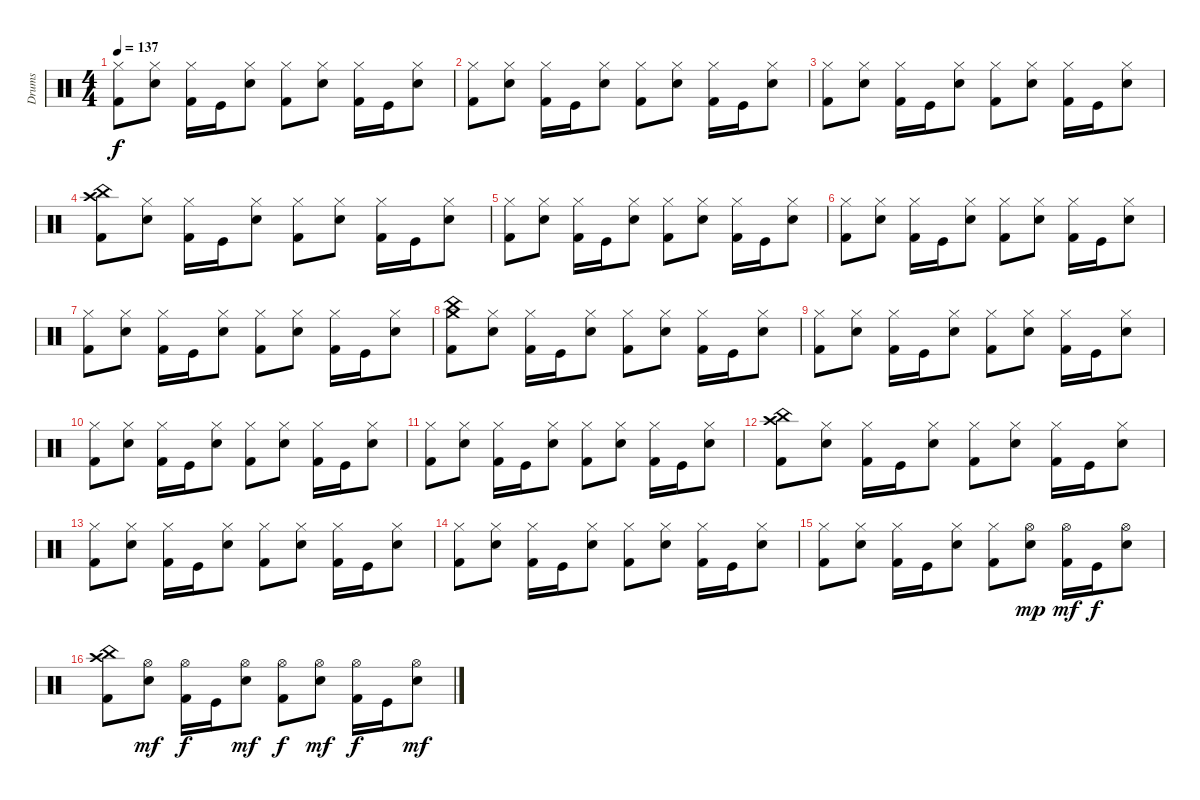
\track ("Drums" "Drums") {instrument percussion}
\staff {score}
\articulation defaults
\ts (4 4)
\tempo 137
\clef neutral
\ks c
("Hi-Hat (closed)" "Kick (hit) 2").8{dy f} ("Hi-Hat (closed)" "Snare (hit) 2").8 ("Hi-Hat (closed)" "Kick (hit) 2").16 "Kick (hit)".16 ("Hi-Hat (closed)" "Snare (hit) 2").8 ("Hi-Hat (closed)" "Kick (hit) 2").8 ("Hi-Hat (closed)" "Snare (hit) 2").8 ("Hi-Hat (closed)" "Kick (hit) 2").16 "Kick (hit)".16 ("Hi-Hat (closed)" "Snare (hit) 2").8 |
("Hi-Hat (closed)" "Kick (hit) 2").8 ("Hi-Hat (closed)" "Snare (hit) 2").8 ("Hi-Hat (closed)" "Kick (hit) 2").16 "Kick (hit)".16 ("Hi-Hat (closed)" "Snare (hit) 2").8 ("Hi-Hat (closed)" "Kick (hit) 2").8 ("Hi-Hat (closed)" "Snare (hit) 2").8 ("Hi-Hat (closed)" "Kick (hit) 2").16 "Kick (hit)".16 ("Hi-Hat (closed)" "Snare (hit) 2").8 |
("Hi-Hat (closed)" "Kick (hit) 2").8 ("Hi-Hat (closed)" "Snare (hit) 2").8 ("Hi-Hat (closed)" "Kick (hit) 2").16 "Kick (hit)".16 ("Hi-Hat (closed)" "Snare (hit) 2").8 ("Hi-Hat (closed)" "Kick (hit) 2").8 ("Hi-Hat (closed)" "Snare (hit) 2").8 ("Hi-Hat (closed)" "Kick (hit) 2").16 "Kick (hit)".16 ("Hi-Hat (closed)" "Snare (hit) 2").8 |
("China (hit)" "Crash high (hit)" "Kick (hit) 2").8 ("Hi-Hat (closed)" "Snare (hit) 2").8 ("Hi-Hat (closed)" "Kick (hit) 2").16 "Kick (hit)".16 ("Hi-Hat (closed)" "Snare (hit) 2").8 ("Hi-Hat (closed)" "Kick (hit) 2").8 ("Hi-Hat (closed)" "Snare (hit) 2").8 ("Hi-Hat (closed)" "Kick (hit) 2").16 "Kick (hit)".16 ("Hi-Hat (closed)" "Snare (hit) 2").8 |
("Hi-Hat (closed)" "Kick (hit) 2").8 ("Hi-Hat (closed)" "Snare (hit) 2").8 ("Hi-Hat (closed)" "Kick (hit) 2").16 "Kick (hit)".16 ("Hi-Hat (closed)" "Snare (hit) 2").8 ("Hi-Hat (closed)" "Kick (hit) 2").8 ("Hi-Hat (closed)" "Snare (hit) 2").8 ("Hi-Hat (closed)" "Kick (hit) 2").16 "Kick (hit)".16 ("Hi-Hat (closed)" "Snare (hit) 2").8 |
("Hi-Hat (closed)" "Kick (hit) 2").8 ("Hi-Hat (closed)" "Snare (hit) 2").8 ("Hi-Hat (closed)" "Kick (hit) 2").16 "Kick (hit)".16 ("Hi-Hat (closed)" "Snare (hit) 2").8 ("Hi-Hat (closed)" "Kick (hit) 2").8 ("Hi-Hat (closed)" "Snare (hit) 2").8 ("Hi-Hat (closed)" "Kick (hit) 2").16 "Kick (hit)".16 ("Hi-Hat (closed)" "Snare (hit) 2").8 |
("Hi-Hat (closed)" "Kick (hit) 2").8 ("Hi-Hat (closed)" "Snare (hit) 2").8 ("Hi-Hat (closed)" "Kick (hit) 2").16 "Kick (hit)".16 ("Hi-Hat (closed)" "Snare (hit) 2").8 ("Hi-Hat (closed)" "Kick (hit) 2").8 ("Hi-Hat (closed)" "Snare (hit) 2").8 ("Hi-Hat (closed)" "Kick (hit) 2").16 "Kick (hit)".16 ("Hi-Hat (closed)" "Snare (hit) 2").8 |
("Crash medium (hit)" "China (hit)" "Kick (hit) 2").8 ("Hi-Hat (closed)" "Snare (hit) 2").8 ("Hi-Hat (closed)" "Kick (hit) 2").16 "Kick (hit)".16 ("Hi-Hat (closed)" "Snare (hit) 2").8 ("Hi-Hat (closed)" "Kick (hit) 2").8 ("Hi-Hat (closed)" "Snare (hit) 2").8 ("Hi-Hat (closed)" "Kick (hit) 2").16 "Kick (hit)".16 ("Hi-Hat (closed)" "Snare (hit) 2").8 |
("Hi-Hat (closed)" "Kick (hit) 2").8 ("Hi-Hat (closed)" "Snare (hit) 2").8 ("Hi-Hat (closed)" "Kick (hit) 2").16 "Kick (hit)".16 ("Hi-Hat (closed)" "Snare (hit) 2").8 ("Hi-Hat (closed)" "Kick (hit) 2").8 ("Hi-Hat (closed)" "Snare (hit) 2").8 ("Hi-Hat (closed)" "Kick (hit) 2").16 "Kick (hit)".16 ("Hi-Hat (closed)" "Snare (hit) 2").8 |
("Hi-Hat (closed)" "Kick (hit) 2").8 ("Hi-Hat (closed)" "Snare (hit) 2").8 ("Hi-Hat (closed)" "Kick (hit) 2").16 "Kick (hit)".16 ("Hi-Hat (closed)" "Snare (hit) 2").8 ("Hi-Hat (closed)" "Kick (hit) 2").8 ("Hi-Hat (closed)" "Snare (hit) 2").8 ("Hi-Hat (closed)" "Kick (hit) 2").16 "Kick (hit)".16 ("Hi-Hat (closed)" "Snare (hit) 2").8 |
("Hi-Hat (closed)" "Kick (hit) 2").8 ("Hi-Hat (closed)" "Snare (hit) 2").8 ("Hi-Hat (closed)" "Kick (hit) 2").16 "Kick (hit)".16 ("Hi-Hat (closed)" "Snare (hit) 2").8 ("Hi-Hat (closed)" "Kick (hit) 2").8 ("Hi-Hat (closed)" "Snare (hit) 2").8 ("Hi-Hat (closed)" "Kick (hit) 2").16 "Kick (hit)".16 ("Hi-Hat (closed)" "Snare (hit) 2").8 |
("China (hit)" "Crash high (hit)" "Kick (hit) 2").8 ("Hi-Hat (closed)" "Snare (hit) 2").8 ("Hi-Hat (closed)" "Kick (hit) 2").16 "Kick (hit)".16 ("Hi-Hat (closed)" "Snare (hit) 2").8 ("Hi-Hat (closed)" "Kick (hit) 2").8 ("Hi-Hat (closed)" "Snare (hit) 2").8 ("Hi-Hat (closed)" "Kick (hit) 2").16 "Kick (hit)".16 ("Hi-Hat (closed)" "Snare (hit) 2").8 |
("Hi-Hat (closed)" "Kick (hit) 2").8 ("Hi-Hat (closed)" "Snare (hit) 2").8 ("Hi-Hat (closed)" "Kick (hit) 2").16 "Kick (hit)".16 ("Hi-Hat (closed)" "Snare (hit) 2").8 ("Hi-Hat (closed)" "Kick (hit) 2").8 ("Hi-Hat (closed)" "Snare (hit) 2").8 ("Hi-Hat (closed)" "Kick (hit) 2").16 "Kick (hit)".16 ("Hi-Hat (closed)" "Snare (hit) 2").8 |
("Hi-Hat (closed)" "Kick (hit) 2").8 ("Hi-Hat (closed)" "Snare (hit) 2").8 ("Hi-Hat (closed)" "Kick (hit) 2").16 "Kick (hit)".16 ("Hi-Hat (closed)" "Snare (hit) 2").8 ("Hi-Hat (closed)" "Kick (hit) 2").8 ("Hi-Hat (closed)" "Snare (hit) 2").8 ("Hi-Hat (closed)" "Kick (hit) 2").16 "Kick (hit)".16 ("Hi-Hat (closed)" "Snare (hit) 2").8 |
("Hi-Hat (closed)" "Kick (hit) 2").8 ("Hi-Hat (closed)" "Snare (hit) 2").8 ("Hi-Hat (closed)" "Kick (hit) 2").16 "Kick (hit)".16 ("Hi-Hat (closed)" "Snare (hit) 2").8 ("Hi-Hat (closed)" "Kick (hit) 2").8 ("Hi-Hat (open)" "Snare (hit) 2").8{dy mp} ("Hi-Hat (open)" "Kick (hit) 2").16{dy mf} "Kick (hit)".16{dy f} ("Hi-Hat (open)" "Snare (hit) 2").8 |
("China (hit)" "Crash high (hit)" "Kick (hit) 2").8 ("Hi-Hat (open)" "Snare (hit) 2").8{dy mf} ("Hi-Hat (open)" "Kick (hit) 2").16{dy f} "Kick (hit)".16 ("Hi-Hat (open)" "Snare (hit) 2").8{dy mf} ("Hi-Hat (open)" "Kick (hit) 2").8{dy f} ("Hi-Hat (open)" "Snare (hit) 2").8{dy mf} ("Hi-Hat (open)" "Kick (hit) 2").16{dy f} "Kick (hit)".16 ("Hi-Hat (open)" "Snare (hit) 2").8{dy mf}
